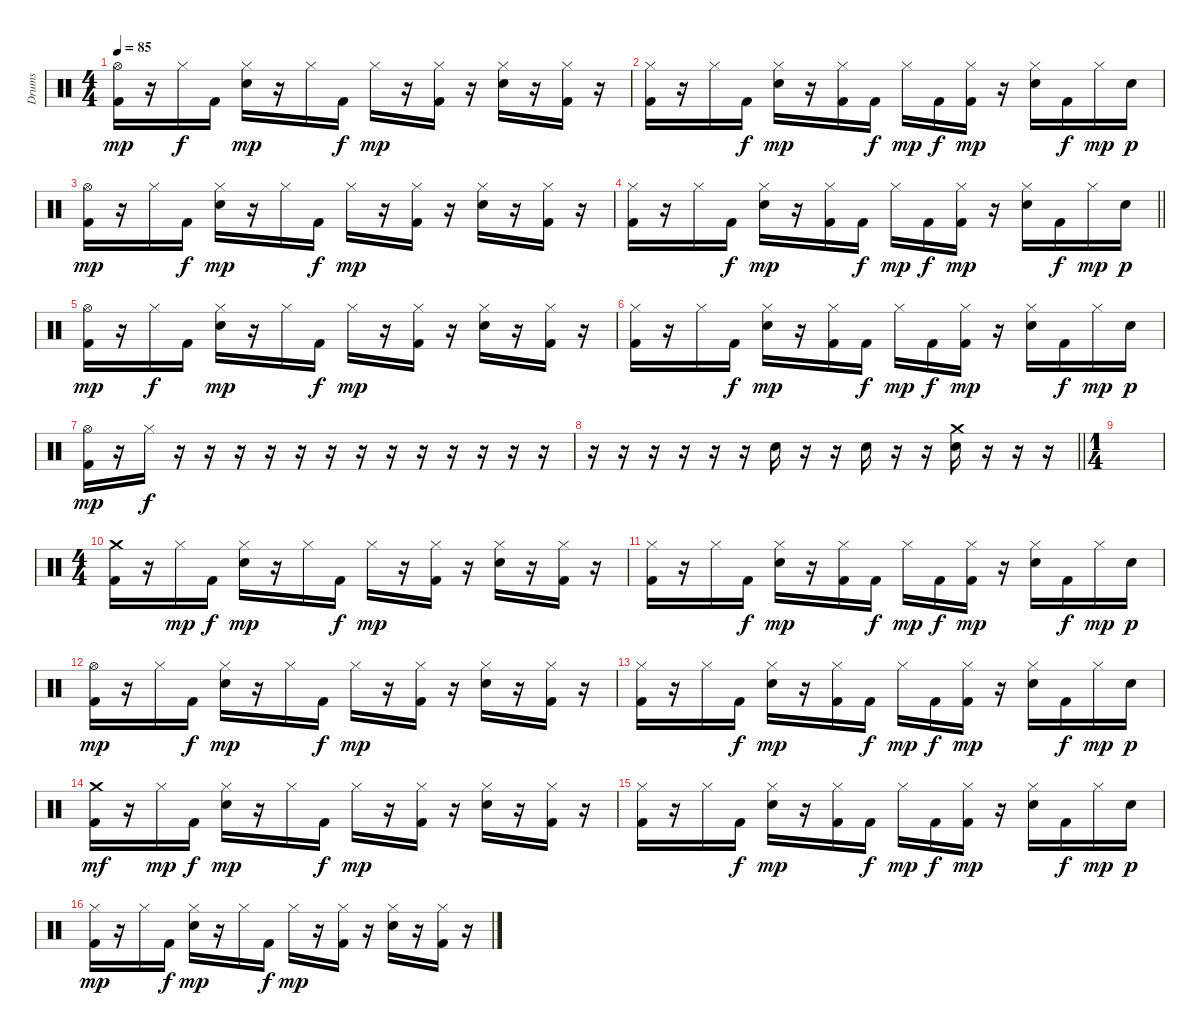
\track ("Drums" "Drums") {instrument percussion}
\staff {score}
\articulation defaults
\ts (4 4)
\tempo 85
\clef neutral
\ks c
("Hi-Hat (open)" "Kick (hit) 2").16{dy mp} r.16 "Hi-Hat (closed)".16{dy f} "Kick (hit) 2".16 ("Hi-Hat (closed)" "Snare (hit) 2").16{dy mp} r.16 "Hi-Hat (closed)".16 "Kick (hit) 2".16{dy f} "Hi-Hat (closed)".16{dy mp} r.16 ("Hi-Hat (closed)" "Kick (hit) 2").16 r.16 ("Hi-Hat (closed)" "Snare (hit) 2").16 r.16 ("Hi-Hat (closed)" "Kick (hit) 2").16 r.16 |
("Hi-Hat (closed)" "Kick (hit) 2").16 r.16 "Hi-Hat (closed)".16 "Kick (hit) 2".16{dy f} ("Hi-Hat (closed)" "Snare (hit) 2").16{dy mp} r.16 ("Hi-Hat (closed)" "Kick (hit) 2").16 "Kick (hit) 2".16{dy f} "Hi-Hat (closed)".16{dy mp} "Kick (hit) 2".16{dy f} ("Hi-Hat (closed)" "Kick (hit) 2").16{dy mp} r.16 ("Hi-Hat (closed)" "Snare (hit) 2").16 "Kick (hit) 2".16{dy f} "Hi-Hat (closed)".16{dy mp} "Snare (hit) 2".16{dy p} |
("Hi-Hat (open)" "Kick (hit) 2").16{dy mp} r.16 "Hi-Hat (closed)".16 "Kick (hit) 2".16{dy f} ("Hi-Hat (closed)" "Snare (hit) 2").16{dy mp} r.16 "Hi-Hat (closed)".16 "Kick (hit) 2".16{dy f} "Hi-Hat (closed)".16{dy mp} r.16 ("Hi-Hat (closed)" "Kick (hit) 2").16 r.16 ("Hi-Hat (closed)" "Snare (hit) 2").16 r.16 ("Hi-Hat (closed)" "Kick (hit) 2").16 r.16 |
\barLineRight lightlight
("Hi-Hat (closed)" "Kick (hit) 2").16 r.16 "Hi-Hat (closed)".16 "Kick (hit) 2".16{dy f} ("Hi-Hat (closed)" "Snare (hit) 2").16{dy mp} r.16 ("Hi-Hat (closed)" "Kick (hit) 2").16 "Kick (hit) 2".16{dy f} "Hi-Hat (closed)".16{dy mp} "Kick (hit) 2".16{dy f} ("Hi-Hat (closed)" "Kick (hit) 2").16{dy mp} r.16 ("Hi-Hat (closed)" "Snare (hit) 2").16 "Kick (hit) 2".16{dy f} "Hi-Hat (closed)".16{dy mp} "Snare (hit) 2".16{dy p} |
("Hi-Hat (open)" "Kick (hit) 2").16{dy mp} r.16 "Hi-Hat (closed)".16{dy f} "Kick (hit) 2".16 ("Hi-Hat (closed)" "Snare (hit) 2").16{dy mp} r.16 "Hi-Hat (closed)".16 "Kick (hit) 2".16{dy f} "Hi-Hat (closed)".16{dy mp} r.16 ("Hi-Hat (closed)" "Kick (hit) 2").16 r.16 ("Hi-Hat (closed)" "Snare (hit) 2").16 r.16 ("Hi-Hat (closed)" "Kick (hit) 2").16 r.16 |
("Hi-Hat (closed)" "Kick (hit) 2").16 r.16 "Hi-Hat (closed)".16 "Kick (hit) 2".16{dy f} ("Hi-Hat (closed)" "Snare (hit) 2").16{dy mp} r.16 ("Hi-Hat (closed)" "Kick (hit) 2").16 "Kick (hit) 2".16{dy f} "Hi-Hat (closed)".16{dy mp} "Kick (hit) 2".16{dy f} ("Hi-Hat (closed)" "Kick (hit) 2").16{dy mp} r.16 ("Hi-Hat (closed)" "Snare (hit) 2").16 "Kick (hit) 2".16{dy f} "Hi-Hat (closed)".16{dy mp} "Snare (hit) 2".16{dy p} |
("Hi-Hat (open)" "Kick (hit) 2").16{dy mp} r.16 "Hi-Hat (closed)".16{dy f} r.16 r.16 r.16 r.16 r.16 r.16 r.16 r.16 r.16 r.16 r.16 r.16 r.16 |
\barLineRight lightlight
r.16 r.16 r.16 r.16 r.16 r.16 "Snare (hit) 2".16 r.16 r.16 "Snare (hit) 2".16 r.16 r.16 ("Crash medium (hit)" "Snare (hit) 2").16 r.16 r.16{volume 0} r.16 |
\ts (1 4)
|
\ts (4 4)
("Crash medium (hit)" "Kick (hit) 2").16{volume 11} r.16 "Hi-Hat (closed)".16{dy mp} "Kick (hit) 2".16{dy f} ("Hi-Hat (closed)" "Snare (hit) 2").16{dy mp} r.16 "Hi-Hat (closed)".16 "Kick (hit) 2".16{dy f} "Hi-Hat (closed)".16{dy mp} r.16 ("Hi-Hat (closed)" "Kick (hit) 2").16 r.16 ("Hi-Hat (closed)" "Snare (hit) 2").16 r.16 ("Hi-Hat (closed)" "Kick (hit) 2").16 r.16 |
("Hi-Hat (closed)" "Kick (hit) 2").16 r.16 "Hi-Hat (closed)".16 "Kick (hit) 2".16{dy f} ("Hi-Hat (closed)" "Snare (hit) 2").16{dy mp} r.16 ("Hi-Hat (closed)" "Kick (hit) 2").16 "Kick (hit) 2".16{dy f} "Hi-Hat (closed)".16{dy mp} "Kick (hit) 2".16{dy f} ("Hi-Hat (closed)" "Kick (hit) 2").16{dy mp} r.16 ("Hi-Hat (closed)" "Snare (hit) 2").16 "Kick (hit) 2".16{dy f} "Hi-Hat (closed)".16{dy mp} "Snare (hit) 2".16{dy p} |
("Hi-Hat (open)" "Kick (hit) 2").16{dy mp} r.16 "Hi-Hat (closed)".16 "Kick (hit) 2".16{dy f} ("Hi-Hat (closed)" "Snare (hit) 2").16{dy mp} r.16 "Hi-Hat (closed)".16 "Kick (hit) 2".16{dy f} "Hi-Hat (closed)".16{dy mp} r.16 ("Hi-Hat (closed)" "Kick (hit) 2").16 r.16 ("Hi-Hat (closed)" "Snare (hit) 2").16 r.16 ("Hi-Hat (closed)" "Kick (hit) 2").16 r.16 |
("Hi-Hat (closed)" "Kick (hit) 2").16 r.16 "Hi-Hat (closed)".16 "Kick (hit) 2".16{dy f} ("Hi-Hat (closed)" "Snare (hit) 2").16{dy mp} r.16 ("Hi-Hat (closed)" "Kick (hit) 2").16 "Kick (hit) 2".16{dy f} "Hi-Hat (closed)".16{dy mp} "Kick (hit) 2".16{dy f} ("Hi-Hat (closed)" "Kick (hit) 2").16{dy mp} r.16 ("Hi-Hat (closed)" "Snare (hit) 2").16 "Kick (hit) 2".16{dy f} "Hi-Hat (closed)".16{dy mp} "Snare (hit) 2".16{dy p} |
("Crash medium (hit)" "Kick (hit) 2").16{dy mf} r.16 "Hi-Hat (closed)".16{dy mp} "Kick (hit) 2".16{dy f} ("Hi-Hat (closed)" "Snare (hit) 2").16{dy mp} r.16 "Hi-Hat (closed)".16 "Kick (hit) 2".16{dy f} "Hi-Hat (closed)".16{dy mp} r.16 ("Hi-Hat (closed)" "Kick (hit) 2").16 r.16 ("Hi-Hat (closed)" "Snare (hit) 2").16 r.16 ("Hi-Hat (closed)" "Kick (hit) 2").16 r.16 |
("Hi-Hat (closed)" "Kick (hit) 2").16 r.16 "Hi-Hat (closed)".16 "Kick (hit) 2".16{dy f} ("Hi-Hat (closed)" "Snare (hit) 2").16{dy mp} r.16 ("Hi-Hat (closed)" "Kick (hit) 2").16 "Kick (hit) 2".16{dy f} "Hi-Hat (closed)".16{dy mp} "Kick (hit) 2".16{dy f} ("Hi-Hat (closed)" "Kick (hit) 2").16{dy mp} r.16 ("Hi-Hat (closed)" "Snare (hit) 2").16 "Kick (hit) 2".16{dy f} "Hi-Hat (closed)".16{dy mp} "Snare (hit) 2".16{dy p} |
("Hi-Hat (closed)" "Kick (hit) 2").16{dy mp} r.16 "Hi-Hat (closed)".16 "Kick (hit) 2".16{dy f} ("Hi-Hat (closed)" "Snare (hit) 2").16{dy mp} r.16 "Hi-Hat (closed)".16 "Kick (hit) 2".16{dy f} "Hi-Hat (closed)".16{dy mp} r.16 ("Hi-Hat (closed)" "Kick (hit) 2").16 r.16 ("Hi-Hat (closed)" "Snare (hit) 2").16 r.16 ("Hi-Hat (closed)" "Kick (hit) 2").16 r.16
